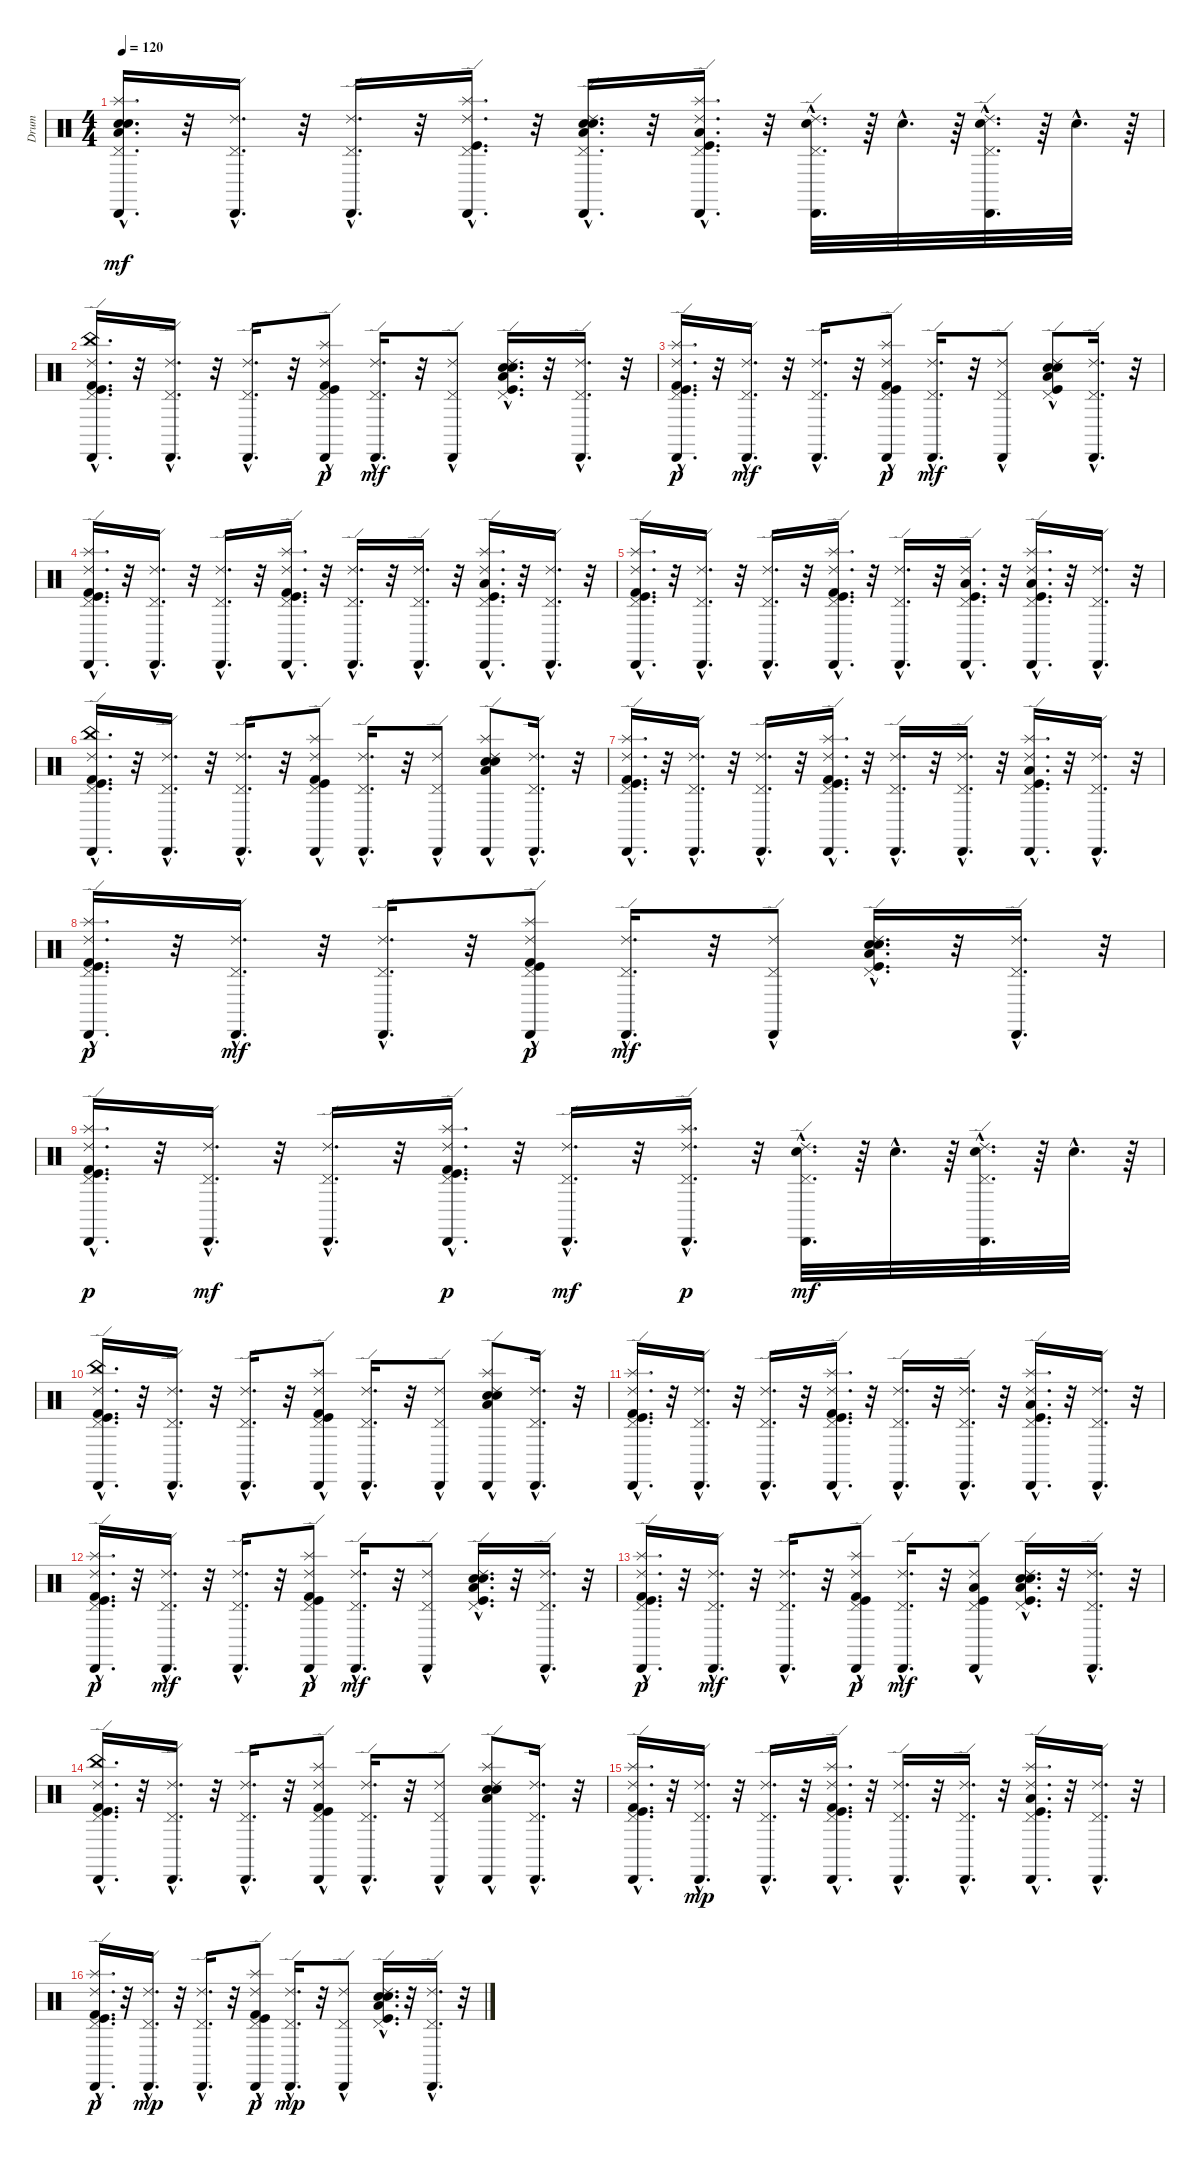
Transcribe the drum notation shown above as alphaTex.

\track ("Drum" "Drum") {instrument percussion}
\staff {score}
\articulation defaults
\ts (4 4)
\tempo 120
\clef neutral
\ks c
("Low Tom (hit)"{hac} "Splash (hit)"{hac} "Electric Snare (hit)"{hac} "Snare (hit) 2"{hac} "Cabasa (hit)"{hac} "Pedal Hi-Hat (hit)"{hac}).16{d dy mf} r.32 ("Cabasa (hit)"{hac} "Pedal Hi-Hat (hit)"{hac} "Ride (edge) 2"{hac}).16{d} r.32 ("Cabasa (hit)"{hac} "Pedal Hi-Hat (hit)"{hac} "Ride (edge) 2"{hac}).16{d} r.32 ("Splash (hit)"{hac} "Cabasa (hit)"{hac} "Pedal Hi-Hat (hit)"{hac} "Kick (hit)"{hac} "Ride (edge) 2"{hac}).16{d} r.32 ("Low Tom (hit)"{hac} "Electric Snare (hit)"{hac} "Snare (hit) 2"{hac} "Cabasa (hit)"{hac} "Pedal Hi-Hat (hit)"{hac} "Ride (edge) 2"{hac}).16{d} r.32 ("Splash (hit)"{hac} "Cabasa (hit)"{hac} "Pedal Hi-Hat (hit)"{hac} "Ride (edge) 2"{hac} "Kick (hit)"{hac} "Low Tom (hit)"{hac}).16{d} r.32 ("Pedal Hi-Hat (hit)"{hac} "Cabasa (hit)"{hac} "Ride (edge) 2"{hac} "Snare (hit) 2"{hac}).32{d} r.64 "Snare (hit) 2"{hac}.32{d} r.64 ("Pedal Hi-Hat (hit)"{hac} "Cabasa (hit)"{hac} "Ride (edge) 2"{hac} "Snare (hit) 2"{hac}).32{d} r.64 "Snare (hit) 2"{hac}.32{d} r.64 |
("China (hit)"{hac} "Pedal Hi-Hat (hit)"{hac} "Kick (hit)"{hac} "Ride (edge) 2"{hac} "Cabasa (hit)"{hac} "Kick (hit) 2"{hac}).16{d} r.32 ("Pedal Hi-Hat (hit)"{hac} "Ride (edge) 2"{hac} "Cabasa (hit)"{hac}).16{d} r.32 ("Pedal Hi-Hat (hit)"{hac} "Ride (edge) 2"{hac} "Cabasa (hit)"{hac}).16{d} r.32 ("Pedal Hi-Hat (hit)"{hac} "Kick (hit)"{hac} "Ride (edge) 2"{hac} "Cabasa (hit)"{hac} "Kick (hit) 2"{hac} "Splash (hit)"{hac}).8{dy p} ("Pedal Hi-Hat (hit)"{hac} "Ride (edge) 2"{hac} "Cabasa (hit)"{hac}).16{d dy mf} r.32 ("Pedal Hi-Hat (hit)"{hac} "Ride (edge) 2"{hac} "Cabasa (hit)"{hac}).8 ("Pedal Hi-Hat (hit)"{hac} "Kick (hit)"{hac} "Low Tom (hit)"{hac} "Ride (edge) 2"{hac} "Snare (hit) 2"{hac} "Electric Snare (hit)"{hac}).16{d} r.32 ("Pedal Hi-Hat (hit)"{hac} "Ride (edge) 2"{hac} "Cabasa (hit)"{hac}).16{d} r.32 |
("Ride (edge) 2"{hac} "Kick (hit)"{hac} "Pedal Hi-Hat (hit)"{hac} "Cabasa (hit)"{hac} "Kick (hit) 2"{hac} "Splash (hit)"{hac}).16{d dy p} r.32 ("Ride (edge) 2"{hac} "Pedal Hi-Hat (hit)"{hac} "Cabasa (hit)"{hac}).16{d dy mf} r.32 ("Ride (edge) 2"{hac} "Pedal Hi-Hat (hit)"{hac} "Cabasa (hit)"{hac}).16{d} r.32 ("Ride (edge) 2"{hac} "Kick (hit)"{hac} "Pedal Hi-Hat (hit)"{hac} "Cabasa (hit)"{hac} "Kick (hit) 2"{hac} "Splash (hit)"{hac}).8{dy p} ("Ride (edge) 2"{hac} "Pedal Hi-Hat (hit)"{hac} "Cabasa (hit)"{hac}).16{d dy mf} r.32 ("Ride (edge) 2"{hac} "Pedal Hi-Hat (hit)"{hac} "Cabasa (hit)"{hac}).8 ("Electric Snare (hit)" "Snare (hit) 2" "Ride (edge) 2"{hac} "Low Tom (hit)"{hac} "Kick (hit)"{hac} "Pedal Hi-Hat (hit)"{hac}).8 ("Ride (edge) 2"{hac} "Pedal Hi-Hat (hit)"{hac} "Cabasa (hit)"{hac}).16{d} r.32 |
("Splash (hit)"{hac} "Kick (hit) 2"{hac} "Cabasa (hit)"{hac} "Pedal Hi-Hat (hit)"{hac} "Kick (hit)"{hac} "Ride (edge) 2"{hac}).16{d} r.32 ("Cabasa (hit)"{hac} "Pedal Hi-Hat (hit)"{hac} "Ride (edge) 2"{hac}).16{d} r.32 ("Cabasa (hit)"{hac} "Pedal Hi-Hat (hit)"{hac} "Ride (edge) 2"{hac}).16{d} r.32 ("Splash (hit)"{hac} "Kick (hit) 2"{hac} "Cabasa (hit)"{hac} "Pedal Hi-Hat (hit)"{hac} "Kick (hit)"{hac} "Ride (edge) 2"{hac}).16{d} r.32 ("Cabasa (hit)"{hac} "Pedal Hi-Hat (hit)"{hac} "Ride (edge) 2"{hac}).16{d} r.32 ("Cabasa (hit)"{hac} "Pedal Hi-Hat (hit)"{hac} "Ride (edge) 2"{hac}).16{d} r.32 ("Splash (hit)"{hac} "Cabasa (hit)"{hac} "Pedal Hi-Hat (hit)"{hac} "Kick (hit)"{hac} "Low Tom (hit)"{hac} "Ride (edge) 2"{hac}).16{d} r.32 ("Cabasa (hit)"{hac} "Pedal Hi-Hat (hit)"{hac} "Ride (edge) 2"{hac}).16{d} r.32 |
("Splash (hit)"{hac} "Kick (hit) 2"{hac} "Cabasa (hit)"{hac} "Pedal Hi-Hat (hit)"{hac} "Kick (hit)"{hac} "Ride (edge) 2"{hac}).16{d} r.32 ("Cabasa (hit)"{hac} "Pedal Hi-Hat (hit)"{hac} "Ride (edge) 2"{hac}).16{d} r.32 ("Cabasa (hit)"{hac} "Pedal Hi-Hat (hit)"{hac} "Ride (edge) 2"{hac}).16{d} r.32 ("Splash (hit)"{hac} "Kick (hit) 2"{hac} "Cabasa (hit)"{hac} "Pedal Hi-Hat (hit)"{hac} "Kick (hit)"{hac} "Ride (edge) 2"{hac}).16{d} r.32 ("Cabasa (hit)"{hac} "Pedal Hi-Hat (hit)"{hac} "Ride (edge) 2"{hac}).16{d} r.32 ("Cabasa (hit)"{hac} "Pedal Hi-Hat (hit)"{hac} "Ride (edge) 2"{hac} "Kick (hit)"{hac} "Low Tom (hit)"{hac}).16{d} r.32 ("Splash (hit)"{hac} "Cabasa (hit)"{hac} "Pedal Hi-Hat (hit)"{hac} "Kick (hit)"{hac} "Low Tom (hit)"{hac} "Ride (edge) 2"{hac}).16{d} r.32 ("Cabasa (hit)"{hac} "Pedal Hi-Hat (hit)"{hac} "Ride (edge) 2"{hac}).16{d} r.32 |
("Kick (hit) 2"{hac} "Cabasa (hit)"{hac} "Ride (edge) 2"{hac} "Kick (hit)"{hac} "Pedal Hi-Hat (hit)"{hac} "China (hit)"{hac}).16{d} r.32 ("Cabasa (hit)"{hac} "Ride (edge) 2"{hac} "Pedal Hi-Hat (hit)"{hac}).16{d} r.32 ("Cabasa (hit)"{hac} "Ride (edge) 2"{hac} "Pedal Hi-Hat (hit)"{hac}).16{d} r.32 ("Splash (hit)"{hac} "Kick (hit) 2"{hac} "Cabasa (hit)"{hac} "Ride (edge) 2"{hac} "Kick (hit)"{hac} "Pedal Hi-Hat (hit)"{hac}).8 ("Cabasa (hit)"{hac} "Ride (edge) 2"{hac} "Pedal Hi-Hat (hit)"{hac}).16{d} r.32 ("Cabasa (hit)"{hac} "Ride (edge) 2"{hac} "Pedal Hi-Hat (hit)"{hac}).8 ("Splash (hit)"{hac} "Cabasa (hit)"{hac} "Electric Snare (hit)" "Snare (hit) 2" "Ride (edge) 2"{hac} "Low Tom (hit)"{hac}).8 ("Cabasa (hit)"{hac} "Ride (edge) 2"{hac} "Pedal Hi-Hat (hit)"{hac}).16{d} r.32 |
("Splash (hit)"{hac} "Kick (hit) 2"{hac} "Cabasa (hit)"{hac} "Pedal Hi-Hat (hit)"{hac} "Kick (hit)"{hac} "Ride (edge) 2"{hac}).16{d} r.32 ("Cabasa (hit)"{hac} "Pedal Hi-Hat (hit)"{hac} "Ride (edge) 2"{hac}).16{d} r.32 ("Cabasa (hit)"{hac} "Pedal Hi-Hat (hit)"{hac} "Ride (edge) 2"{hac}).16{d} r.32 ("Splash (hit)"{hac} "Kick (hit) 2"{hac} "Cabasa (hit)"{hac} "Pedal Hi-Hat (hit)"{hac} "Kick (hit)"{hac} "Ride (edge) 2"{hac}).16{d} r.32 ("Cabasa (hit)"{hac} "Pedal Hi-Hat (hit)"{hac} "Ride (edge) 2"{hac}).16{d} r.32 ("Cabasa (hit)"{hac} "Pedal Hi-Hat (hit)"{hac} "Ride (edge) 2"{hac}).16{d} r.32 ("Splash (hit)"{hac} "Cabasa (hit)"{hac} "Pedal Hi-Hat (hit)"{hac} "Kick (hit)"{hac} "Low Tom (hit)"{hac} "Ride (edge) 2"{hac}).16{d} r.32 ("Cabasa (hit)"{hac} "Pedal Hi-Hat (hit)"{hac} "Ride (edge) 2"{hac}).16{d} r.32 |
("Ride (edge) 2"{hac} "Kick (hit)"{hac} "Pedal Hi-Hat (hit)"{hac} "Cabasa (hit)"{hac} "Kick (hit) 2"{hac} "Splash (hit)"{hac}).16{d dy p} r.32 ("Ride (edge) 2"{hac} "Pedal Hi-Hat (hit)"{hac} "Cabasa (hit)"{hac}).16{d dy mf} r.32 ("Ride (edge) 2"{hac} "Pedal Hi-Hat (hit)"{hac} "Cabasa (hit)"{hac}).16{d} r.32 ("Ride (edge) 2"{hac} "Kick (hit)"{hac} "Pedal Hi-Hat (hit)"{hac} "Cabasa (hit)"{hac} "Kick (hit) 2"{hac} "Splash (hit)"{hac}).8{dy p} ("Ride (edge) 2"{hac} "Pedal Hi-Hat (hit)"{hac} "Cabasa (hit)"{hac}).16{d dy mf} r.32 ("Ride (edge) 2"{hac} "Pedal Hi-Hat (hit)"{hac} "Cabasa (hit)"{hac}).8 ("Electric Snare (hit)"{hac} "Snare (hit) 2"{hac} "Ride (edge) 2"{hac} "Low Tom (hit)"{hac} "Kick (hit)"{hac} "Pedal Hi-Hat (hit)"{hac}).16{d} r.32 ("Ride (edge) 2"{hac} "Pedal Hi-Hat (hit)"{hac} "Cabasa (hit)"{hac}).16{d} r.32 |
("Kick (hit) 2"{hac} "Ride (edge) 2"{hac} "Kick (hit)"{hac} "Pedal Hi-Hat (hit)"{hac} "Cabasa (hit)"{hac} "Splash (hit)"{hac}).16{d dy p} r.32 ("Ride (edge) 2"{hac} "Pedal Hi-Hat (hit)"{hac} "Cabasa (hit)"{hac}).16{d dy mf} r.32 ("Ride (edge) 2"{hac} "Pedal Hi-Hat (hit)"{hac} "Cabasa (hit)"{hac}).16{d} r.32 ("Kick (hit) 2"{hac} "Ride (edge) 2"{hac} "Kick (hit)"{hac} "Pedal Hi-Hat (hit)"{hac} "Cabasa (hit)"{hac} "Splash (hit)"{hac}).16{d dy p} r.32 ("Ride (edge) 2"{hac} "Pedal Hi-Hat (hit)"{hac} "Cabasa (hit)"{hac}).16{d dy mf} r.32 ("Ride (edge) 2"{hac} "Pedal Hi-Hat (hit)"{hac} "Cabasa (hit)"{hac} "Splash (hit)"{hac}).16{d dy p} r.32 ("Snare (hit) 2"{hac} "Ride (edge) 2"{hac} "Cabasa (hit)"{hac} "Pedal Hi-Hat (hit)"{hac}).32{d dy mf} r.64 "Snare (hit) 2"{hac}.32{d} r.64 ("Snare (hit) 2"{hac} "Ride (edge) 2"{hac} "Cabasa (hit)"{hac} "Pedal Hi-Hat (hit)"{hac}).32{d} r.64 "Snare (hit) 2"{hac}.32{d} r.64 |
("Kick (hit) 2"{hac} "Cabasa (hit)"{hac} "Ride (edge) 2"{hac} "Kick (hit)"{hac} "Pedal Hi-Hat (hit)"{hac} "China (hit)"{hac}).16{d} r.32 ("Cabasa (hit)"{hac} "Ride (edge) 2"{hac} "Pedal Hi-Hat (hit)"{hac}).16{d} r.32 ("Cabasa (hit)"{hac} "Ride (edge) 2"{hac} "Pedal Hi-Hat (hit)"{hac}).16{d} r.32 ("Splash (hit)"{hac} "Kick (hit) 2"{hac} "Cabasa (hit)"{hac} "Ride (edge) 2"{hac} "Kick (hit)"{hac} "Pedal Hi-Hat (hit)"{hac}).8 ("Cabasa (hit)"{hac} "Ride (edge) 2"{hac} "Pedal Hi-Hat (hit)"{hac}).16{d} r.32 ("Cabasa (hit)"{hac} "Ride (edge) 2"{hac} "Pedal Hi-Hat (hit)"{hac}).8 ("Splash (hit)"{hac} "Cabasa (hit)"{hac} "Electric Snare (hit)" "Snare (hit) 2" "Ride (edge) 2"{hac} "Low Tom (hit)"{hac}).8 ("Cabasa (hit)"{hac} "Ride (edge) 2"{hac} "Pedal Hi-Hat (hit)"{hac}).16{d} r.32 |
("Splash (hit)"{hac} "Kick (hit) 2"{hac} "Cabasa (hit)"{hac} "Pedal Hi-Hat (hit)"{hac} "Kick (hit)"{hac} "Ride (edge) 2"{hac}).16{d} r.32 ("Cabasa (hit)"{hac} "Pedal Hi-Hat (hit)"{hac} "Ride (edge) 2"{hac}).16{d} r.32 ("Cabasa (hit)"{hac} "Pedal Hi-Hat (hit)"{hac} "Ride (edge) 2"{hac}).16{d} r.32 ("Splash (hit)"{hac} "Kick (hit) 2"{hac} "Cabasa (hit)"{hac} "Pedal Hi-Hat (hit)"{hac} "Kick (hit)"{hac} "Ride (edge) 2"{hac}).16{d} r.32 ("Cabasa (hit)"{hac} "Pedal Hi-Hat (hit)"{hac} "Ride (edge) 2"{hac}).16{d} r.32 ("Cabasa (hit)"{hac} "Pedal Hi-Hat (hit)"{hac} "Ride (edge) 2"{hac}).16{d} r.32 ("Splash (hit)"{hac} "Cabasa (hit)"{hac} "Pedal Hi-Hat (hit)"{hac} "Kick (hit)"{hac} "Low Tom (hit)"{hac} "Ride (edge) 2"{hac}).16{d} r.32 ("Cabasa (hit)"{hac} "Pedal Hi-Hat (hit)"{hac} "Ride (edge) 2"{hac}).16{d} r.32 |
("Ride (edge) 2"{hac} "Kick (hit)"{hac} "Pedal Hi-Hat (hit)"{hac} "Cabasa (hit)"{hac} "Kick (hit) 2"{hac} "Splash (hit)"{hac}).16{d dy p} r.32 ("Ride (edge) 2"{hac} "Pedal Hi-Hat (hit)"{hac} "Cabasa (hit)"{hac}).16{d dy mf} r.32 ("Ride (edge) 2"{hac} "Pedal Hi-Hat (hit)"{hac} "Cabasa (hit)"{hac}).16{d} r.32 ("Ride (edge) 2"{hac} "Kick (hit)"{hac} "Pedal Hi-Hat (hit)"{hac} "Cabasa (hit)"{hac} "Kick (hit) 2"{hac} "Splash (hit)"{hac}).8{dy p} ("Ride (edge) 2"{hac} "Pedal Hi-Hat (hit)"{hac} "Cabasa (hit)"{hac}).16{d dy mf} r.32 ("Ride (edge) 2"{hac} "Pedal Hi-Hat (hit)"{hac} "Cabasa (hit)"{hac}).8 ("Electric Snare (hit)"{hac} "Snare (hit) 2"{hac} "Ride (edge) 2"{hac} "Low Tom (hit)"{hac} "Kick (hit)"{hac} "Pedal Hi-Hat (hit)"{hac}).16{d} r.32 ("Ride (edge) 2"{hac} "Pedal Hi-Hat (hit)"{hac} "Cabasa (hit)"{hac}).16{d} r.32 |
("Ride (edge) 2"{hac} "Kick (hit)"{hac} "Pedal Hi-Hat (hit)"{hac} "Cabasa (hit)"{hac} "Kick (hit) 2"{hac} "Splash (hit)"{hac}).16{d dy p} r.32 ("Ride (edge) 2"{hac} "Pedal Hi-Hat (hit)"{hac} "Cabasa (hit)"{hac}).16{d dy mf} r.32 ("Ride (edge) 2"{hac} "Pedal Hi-Hat (hit)"{hac} "Cabasa (hit)"{hac}).16{d} r.32 ("Ride (edge) 2"{hac} "Kick (hit)"{hac} "Pedal Hi-Hat (hit)"{hac} "Cabasa (hit)"{hac} "Kick (hit) 2"{hac} "Splash (hit)"{hac}).8{dy p} ("Ride (edge) 2"{hac} "Pedal Hi-Hat (hit)"{hac} "Cabasa (hit)"{hac}).16{d dy mf} r.32 ("Low Tom (hit)"{hac} "Kick (hit)"{hac} "Ride (edge) 2"{hac} "Pedal Hi-Hat (hit)"{hac} "Cabasa (hit)"{hac}).8 ("Electric Snare (hit)"{hac} "Snare (hit) 2"{hac} "Ride (edge) 2"{hac} "Low Tom (hit)"{hac} "Kick (hit)"{hac} "Pedal Hi-Hat (hit)"{hac}).16{d} r.32 ("Ride (edge) 2"{hac} "Pedal Hi-Hat (hit)"{hac} "Cabasa (hit)"{hac}).16{d} r.32 |
("Kick (hit) 2"{hac} "Cabasa (hit)"{hac} "Ride (edge) 2"{hac} "Kick (hit)"{hac} "Pedal Hi-Hat (hit)"{hac} "China (hit)"{hac}).16{d} r.32 ("Cabasa (hit)"{hac} "Ride (edge) 2"{hac} "Pedal Hi-Hat (hit)"{hac}).16{d} r.32 ("Cabasa (hit)"{hac} "Ride (edge) 2"{hac} "Pedal Hi-Hat (hit)"{hac}).16{d} r.32 ("Splash (hit)"{hac} "Kick (hit) 2"{hac} "Cabasa (hit)"{hac} "Ride (edge) 2"{hac} "Kick (hit)"{hac} "Pedal Hi-Hat (hit)"{hac}).8 ("Cabasa (hit)"{hac} "Ride (edge) 2"{hac} "Pedal Hi-Hat (hit)"{hac}).16{d} r.32 ("Cabasa (hit)"{hac} "Ride (edge) 2"{hac} "Pedal Hi-Hat (hit)"{hac}).8 ("Splash (hit)"{hac} "Cabasa (hit)"{hac} "Electric Snare (hit)" "Snare (hit) 2" "Ride (edge) 2"{hac} "Low Tom (hit)"{hac}).8 ("Cabasa (hit)"{hac} "Ride (edge) 2"{hac} "Pedal Hi-Hat (hit)"{hac}).16{d} r.32 |
("Splash (hit)"{hac} "Kick (hit) 2"{hac} "Cabasa (hit)"{hac} "Pedal Hi-Hat (hit)"{hac} "Kick (hit)"{hac} "Ride (edge) 2"{hac}).16{d} r.32 ("Cabasa (hit)"{hac} "Pedal Hi-Hat (hit)"{hac} "Ride (edge) 2"{hac}).16{d dy mp} r.32 ("Cabasa (hit)"{hac} "Pedal Hi-Hat (hit)"{hac} "Ride (edge) 2"{hac}).16{d} r.32 ("Splash (hit)"{hac} "Kick (hit) 2"{hac} "Cabasa (hit)"{hac} "Pedal Hi-Hat (hit)"{hac} "Kick (hit)"{hac} "Ride (edge) 2"{hac}).16{d} r.32 ("Cabasa (hit)"{hac} "Pedal Hi-Hat (hit)"{hac} "Ride (edge) 2"{hac}).16{d} r.32 ("Cabasa (hit)"{hac} "Pedal Hi-Hat (hit)"{hac} "Ride (edge) 2"{hac}).16{d} r.32 ("Splash (hit)"{hac} "Cabasa (hit)"{hac} "Pedal Hi-Hat (hit)"{hac} "Kick (hit)"{hac} "Low Tom (hit)"{hac} "Ride (edge) 2"{hac}).16{d} r.32 ("Cabasa (hit)"{hac} "Pedal Hi-Hat (hit)"{hac} "Ride (edge) 2"{hac}).16{d} r.32 |
("Ride (edge) 2"{hac} "Kick (hit)"{hac} "Pedal Hi-Hat (hit)"{hac} "Cabasa (hit)"{hac} "Kick (hit) 2"{hac} "Splash (hit)"{hac}).16{d dy p} r.32 ("Ride (edge) 2"{hac} "Pedal Hi-Hat (hit)"{hac} "Cabasa (hit)"{hac}).16{d dy mp} r.32 ("Ride (edge) 2"{hac} "Pedal Hi-Hat (hit)"{hac} "Cabasa (hit)"{hac}).16{d} r.32 ("Ride (edge) 2"{hac} "Kick (hit)"{hac} "Pedal Hi-Hat (hit)"{hac} "Cabasa (hit)"{hac} "Kick (hit) 2"{hac} "Splash (hit)"{hac}).8{dy p} ("Ride (edge) 2"{hac} "Pedal Hi-Hat (hit)"{hac} "Cabasa (hit)"{hac}).16{d dy mp} r.32 ("Ride (edge) 2"{hac} "Pedal Hi-Hat (hit)"{hac} "Cabasa (hit)"{hac}).8 ("Electric Snare (hit)"{hac} "Snare (hit) 2"{hac} "Ride (edge) 2"{hac} "Low Tom (hit)"{hac} "Kick (hit)"{hac} "Pedal Hi-Hat (hit)"{hac}).16{d} r.32 ("Ride (edge) 2"{hac} "Pedal Hi-Hat (hit)"{hac} "Cabasa (hit)"{hac}).16{d} r.32
